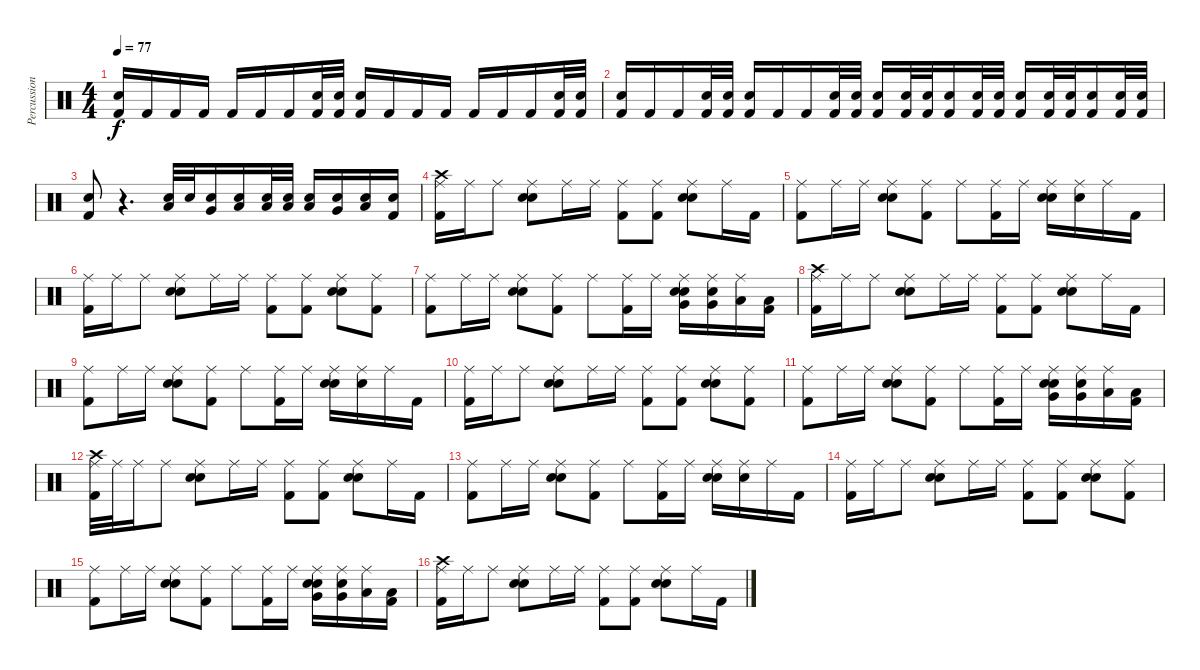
\track ("Percussion" "Percussion") {instrument percussion}
\staff {score}
\articulation defaults
\ts (4 4)
\tempo 77
\clef neutral
\ks c
("Kick (hit) 2" "Electric Snare (hit)").16{dy f} "Kick (hit) 2".16 "Kick (hit) 2".16 "Kick (hit) 2".16 "Kick (hit) 2".16 "Kick (hit) 2".16 "Kick (hit) 2".16 ("Kick (hit) 2" "Electric Snare (hit)").32 ("Kick (hit) 2" "Electric Snare (hit)").32 ("Kick (hit) 2" "Electric Snare (hit)").16 "Kick (hit) 2".16 "Kick (hit) 2".16 "Kick (hit) 2".16 "Kick (hit) 2".16 "Kick (hit) 2".16 "Kick (hit) 2".16 ("Kick (hit) 2" "Electric Snare (hit)").32 ("Kick (hit) 2" "Electric Snare (hit)").32 |
("Kick (hit) 2" "Electric Snare (hit)").16 "Kick (hit) 2".16 "Kick (hit) 2".16 ("Kick (hit) 2" "Electric Snare (hit)").32 ("Kick (hit) 2" "Electric Snare (hit)").32 ("Kick (hit) 2" "Electric Snare (hit)").16 "Kick (hit) 2".16 "Kick (hit) 2".16 ("Kick (hit) 2" "Electric Snare (hit)").32 ("Kick (hit) 2" "Electric Snare (hit)").32 ("Kick (hit) 2" "Electric Snare (hit)").16 ("Kick (hit) 2" "Electric Snare (hit)").32 ("Kick (hit) 2" "Electric Snare (hit)").32 ("Kick (hit) 2" "Electric Snare (hit)").16 ("Kick (hit) 2" "Electric Snare (hit)").32 ("Kick (hit) 2" "Electric Snare (hit)").32 ("Kick (hit) 2" "Electric Snare (hit)").16 ("Kick (hit) 2" "Electric Snare (hit)").32 ("Kick (hit) 2" "Electric Snare (hit)").32 ("Kick (hit) 2" "Electric Snare (hit)").16 ("Kick (hit) 2" "Electric Snare (hit)").32 ("Kick (hit) 2" "Electric Snare (hit)").32 |
("Kick (hit) 2" "Electric Snare (hit)").8 r.4{d} ("Snare (hit) 2" "Low Tom (hit)").32 "Electric Snare (hit)".32 ("Snare (hit) 2" "Very Low Tom (hit)").16 ("Snare (hit) 2" "Low Floor Tom (hit)").16 ("Electric Snare (hit)" "Low Floor Tom (hit)").32 ("Electric Snare (hit)" "Low Floor Tom (hit)").32 ("Electric Snare (hit)" "Low Tom (hit)").16 ("Electric Snare (hit)" "Very Low Tom (hit)").16 ("Electric Snare (hit)" "Low Floor Tom (hit)").16 ("Kick (hit) 2" "Snare (hit) 2").16 |
("Kick (hit) 2" "Crash high (hit)" "Ride (middle)").16 "Ride (middle)".16 "Ride (middle)".8 ("Metronome (bell)" "Electric Snare (hit)" "Ride (middle)").8 "Ride (middle)".16 "Ride (middle)".16 ("Kick (hit) 2" "Ride (middle)").8 ("Kick (hit) 2" "Ride (middle)").8 ("Metronome (bell)" "Electric Snare (hit)" "Ride (middle)").8 "Ride (middle)".16 "Kick (hit) 2".16 |
("Kick (hit) 2" "Ride (middle)").8 "Ride (middle)".16 "Ride (middle)".16 ("Metronome (bell)" "Electric Snare (hit)" "Ride (middle)").8 ("Kick (hit) 2" "Ride (middle)").8 "Ride (middle)".8 ("Kick (hit) 2" "Ride (middle)").16 "Ride (middle)".16 ("Metronome (bell)" "Electric Snare (hit)" "Ride (middle)").16 ("Electric Snare (hit)" "Ride (middle)").16 "Ride (middle)".16 "Kick (hit) 2".16 |
("Kick (hit) 2" "Ride (middle)").16 "Ride (middle)".16 "Ride (middle)".8 ("Metronome (bell)" "Electric Snare (hit)" "Ride (middle)").8 "Ride (middle)".16 "Ride (middle)".16 ("Kick (hit) 2" "Ride (middle)").8 ("Kick (hit) 2" "Ride (middle)").8 ("Metronome (bell)" "Electric Snare (hit)" "Ride (middle)").8 ("Kick (hit) 2" "Ride (middle)").8 |
("Kick (hit) 2" "Ride (middle)").8 "Ride (middle)".16 "Ride (middle)".16 ("Metronome (bell)" "Electric Snare (hit)" "Ride (middle)").8 ("Kick (hit) 2" "Ride (middle)").8 "Ride (middle)".8 ("Kick (hit) 2" "Ride (middle)").16 "Ride (middle)".16 ("Metronome (bell)" "Electric Snare (hit)" "Very Low Tom (hit)" "Ride (middle)").16 ("Electric Snare (hit)" "Very Low Tom (hit)" "Ride (middle)").16 ("Low Floor Tom (hit)" "Ride (middle)").16 ("Kick (hit) 2" "Low Floor Tom (hit)").16 |
("Kick (hit) 2" "Crash high (hit)" "Ride (middle)").16 "Ride (middle)".16 "Ride (middle)".8 ("Metronome (bell)" "Electric Snare (hit)" "Ride (middle)").8 "Ride (middle)".16 "Ride (middle)".16 ("Kick (hit) 2" "Ride (middle)").8 ("Kick (hit) 2" "Ride (middle)").8 ("Metronome (bell)" "Electric Snare (hit)" "Ride (middle)").8 "Ride (middle)".16 "Kick (hit) 2".16 |
("Kick (hit) 2" "Ride (middle)").8 "Ride (middle)".16 "Ride (middle)".16 ("Metronome (bell)" "Electric Snare (hit)" "Ride (middle)").8 ("Kick (hit) 2" "Ride (middle)").8 "Ride (middle)".8 ("Kick (hit) 2" "Ride (middle)").16 "Ride (middle)".16 ("Metronome (bell)" "Electric Snare (hit)" "Ride (middle)").16 ("Electric Snare (hit)" "Ride (middle)").16 "Ride (middle)".16 "Kick (hit) 2".16 |
("Kick (hit) 2" "Ride (middle)").16 "Ride (middle)".16 "Ride (middle)".8 ("Metronome (bell)" "Electric Snare (hit)" "Ride (middle)").8 "Ride (middle)".16 "Ride (middle)".16 ("Kick (hit) 2" "Ride (middle)").8 ("Kick (hit) 2" "Ride (middle)").8 ("Metronome (bell)" "Electric Snare (hit)" "Ride (middle)").8 ("Kick (hit) 2" "Ride (middle)").8 |
("Kick (hit) 2" "Ride (middle)").8 "Ride (middle)".16 "Ride (middle)".16 ("Metronome (bell)" "Electric Snare (hit)" "Ride (middle)").8 ("Kick (hit) 2" "Ride (middle)").8 "Ride (middle)".8 ("Kick (hit) 2" "Ride (middle)").16 "Ride (middle)".16 ("Metronome (bell)" "Electric Snare (hit)" "Very Low Tom (hit)" "Ride (middle)").16 ("Electric Snare (hit)" "Very Low Tom (hit)" "Ride (middle)").16 ("Low Floor Tom (hit)" "Ride (middle)").16 ("Kick (hit) 2" "Low Floor Tom (hit)").16 |
("Kick (hit) 2" "Crash high (hit)" "Ride (middle)").32 "Ride (middle)".32 "Ride (middle)".16 "Ride (middle)".8 ("Metronome (bell)" "Electric Snare (hit)" "Ride (middle)").8 "Ride (middle)".16 "Ride (middle)".16 ("Kick (hit) 2" "Ride (middle)").8 ("Kick (hit) 2" "Ride (middle)").8 ("Metronome (bell)" "Electric Snare (hit)" "Ride (middle)").8 "Ride (middle)".16 "Kick (hit) 2".16 |
("Kick (hit) 2" "Ride (middle)").8 "Ride (middle)".16 "Ride (middle)".16 ("Metronome (bell)" "Electric Snare (hit)" "Ride (middle)").8 ("Kick (hit) 2" "Ride (middle)").8 "Ride (middle)".8 ("Kick (hit) 2" "Ride (middle)").16 "Ride (middle)".16 ("Metronome (bell)" "Electric Snare (hit)" "Ride (middle)").16 ("Electric Snare (hit)" "Ride (middle)").16 "Ride (middle)".16 "Kick (hit) 2".16 |
("Kick (hit) 2" "Ride (middle)").16 "Ride (middle)".16 "Ride (middle)".8 ("Metronome (bell)" "Electric Snare (hit)" "Ride (middle)").8 "Ride (middle)".16 "Ride (middle)".16 ("Kick (hit) 2" "Ride (middle)").8 ("Kick (hit) 2" "Ride (middle)").8 ("Metronome (bell)" "Electric Snare (hit)" "Ride (middle)").8 ("Kick (hit) 2" "Ride (middle)").8 |
("Kick (hit) 2" "Ride (middle)").8 "Ride (middle)".16 "Ride (middle)".16 ("Metronome (bell)" "Electric Snare (hit)" "Ride (middle)").8 ("Kick (hit) 2" "Ride (middle)").8 "Ride (middle)".8 ("Kick (hit) 2" "Ride (middle)").16 "Ride (middle)".16 ("Metronome (bell)" "Electric Snare (hit)" "Very Low Tom (hit)" "Ride (middle)").16 ("Electric Snare (hit)" "Very Low Tom (hit)" "Ride (middle)").16 ("Low Floor Tom (hit)" "Ride (middle)").16 ("Kick (hit) 2" "Low Floor Tom (hit)").16 |
("Kick (hit) 2" "Crash high (hit)" "Ride (middle)").16 "Ride (middle)".16 "Ride (middle)".8 ("Metronome (bell)" "Electric Snare (hit)" "Ride (middle)").8 "Ride (middle)".16 "Ride (middle)".16 ("Kick (hit) 2" "Ride (middle)").8 ("Kick (hit) 2" "Ride (middle)").8 ("Metronome (bell)" "Electric Snare (hit)" "Ride (middle)").8 "Ride (middle)".16 "Kick (hit) 2".16
